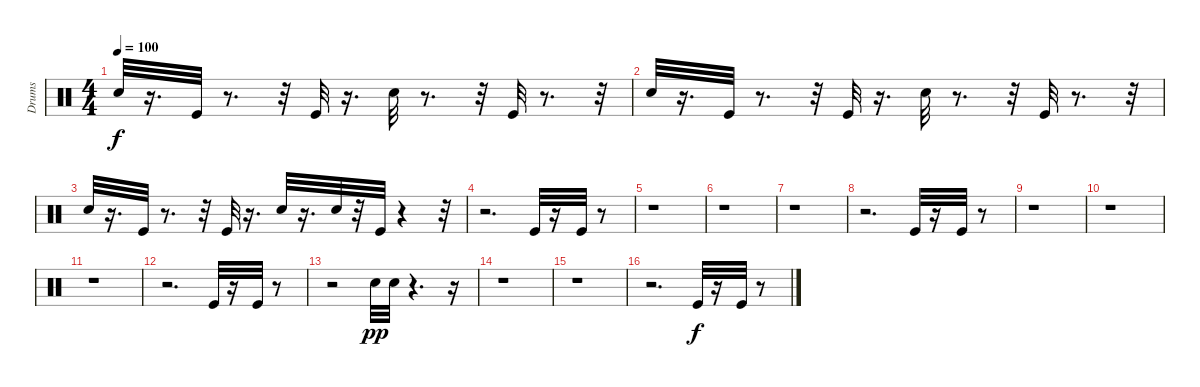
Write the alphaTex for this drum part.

\track ("Drums" "Drums") {instrument percussion}
\staff {score}
\articulation defaults
\ts (4 4)
\tempo 100
\clef neutral
\ks c "Metronome (bell)".32{dy f}
r.16{d} "Kick (hit)".32 r.8{d} r.32 "Kick (hit)".32 r.16{d} "Metronome (bell)".32 r.8{d} r.32 "Kick (hit)".32 r.8{d} r.32 |
"Metronome (bell)".32 r.16{d} "Kick (hit)".32 r.8{d} r.32 "Kick (hit)".32 r.16{d} "Metronome (bell)".32 r.8{d} r.32 "Kick (hit)".32 r.8{d} r.32 |
"Metronome (bell)".32 r.16{d} "Kick (hit)".32 r.8{d} r.32 "Kick (hit)".32 r.16{d} "Metronome (bell)".32 r.16{d} "Metronome (bell)".32 r.32 "Kick (hit)".32 r.4 r.32 |
r.2{d} "Kick (hit)".32 r.16 "Kick (hit)".32 r.8 |
r.1 |
r.1 |
r.1 |
r.2{d} "Kick (hit)".32 r.16 "Kick (hit)".32 r.8 |
r.1 |
r.1 |
r.1 |
r.2{d} "Kick (hit)".32 r.16 "Kick (hit)".32 r.8 |
r.2 "Snare (hit)".32{dy pp} "Snare (hit)".32 r.4{d} r.16 |
r.1 |
r.1 |
r.2{d} "Kick (hit)".32{dy f} r.16 "Kick (hit)".32 r.8
